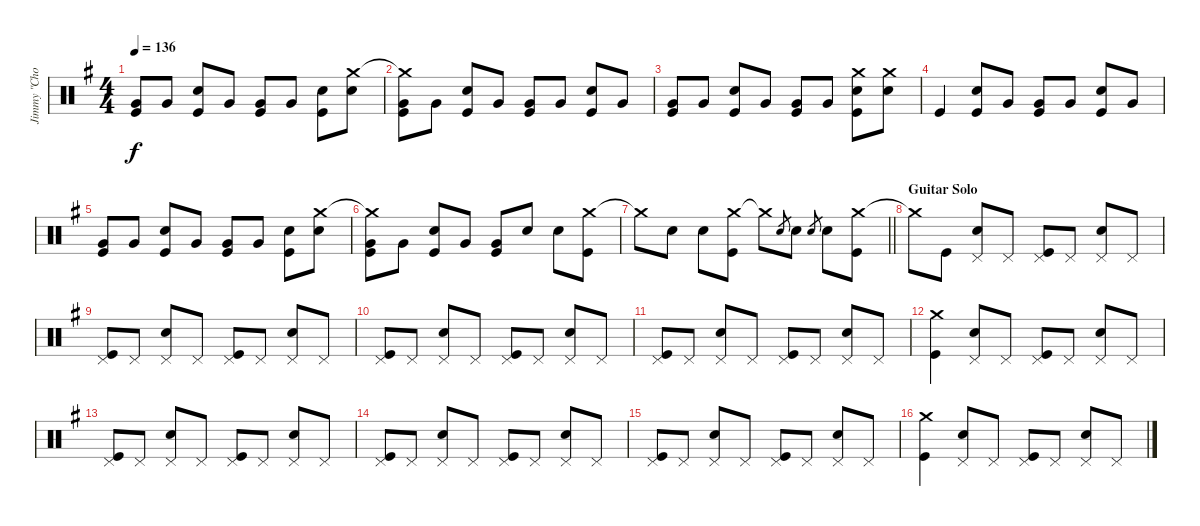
\track ("Jimmy \"Chocolate\" Chalfant" "Jimmy \"Cho") {instrument percussion}
\staff {score}
\articulation defaults
\ts (4 4)
\tempo 136
\clef neutral
\ks g
("Very Low Tom (hit)" "Kick (hit)").8{dy f} "Very Low Tom (hit)".8 ("Snare (hit) 2" "Kick (hit)").8 "Very Low Tom (hit)".8 ("Very Low Tom (hit)" "Kick (hit)").8 "Very Low Tom (hit)".8 ("Snare (hit) 2" "Kick (hit)").8 ("Crash medium (hit)" "Snare (hit) 2").8 |
("Crash medium (hit)"{t} "Very Low Tom (hit)" "Kick (hit)").8 "Very Low Tom (hit)".8 ("Snare (hit) 2" "Kick (hit)").8 "Very Low Tom (hit)".8 ("Very Low Tom (hit)" "Kick (hit)").8 "Very Low Tom (hit)".8 ("Snare (hit) 2" "Kick (hit)").8 "Very Low Tom (hit)".8 |
("Very Low Tom (hit)" "Kick (hit)").8 "Very Low Tom (hit)".8 ("Snare (hit) 2" "Kick (hit)").8 "Very Low Tom (hit)".8 ("Very Low Tom (hit)" "Kick (hit)").8 "Very Low Tom (hit)".8 ("Crash medium (hit)" "Snare (hit) 2" "Kick (hit)").8 ("Crash medium (hit)" "Snare (hit) 2").8 |
"Kick (hit)".4 ("Snare (hit) 2" "Kick (hit)").8 "Very Low Tom (hit)".8 ("Very Low Tom (hit)" "Kick (hit)").8 "Very Low Tom (hit)".8 ("Snare (hit) 2" "Kick (hit)").8 "Very Low Tom (hit)".8 |
("Very Low Tom (hit)" "Kick (hit)").8 "Very Low Tom (hit)".8 ("Snare (hit) 2" "Kick (hit)").8 "Very Low Tom (hit)".8 ("Very Low Tom (hit)" "Kick (hit)").8 "Very Low Tom (hit)".8 ("Snare (hit) 2" "Kick (hit)").8 ("Crash medium (hit)" "Snare (hit) 2").8 |
("Crash medium (hit)"{t} "Very Low Tom (hit)" "Kick (hit)").8 "Very Low Tom (hit)".8 ("Snare (hit) 2" "Kick (hit)").8 "Very Low Tom (hit)".8 ("Very Low Tom (hit)" "Kick (hit)").8 "Snare (hit) 2".8 "Snare (hit) 2".8 ("Crash medium (hit)" "Kick (hit)").8 |
\barLineRight lightlight "Crash medium (hit)"{t}.8 "Snare (hit) 2".8 "Snare (hit) 2".8
("Crash medium (hit)" "Kick (hit)").8 "Crash medium (hit)"{t}.8 "Snare (hit) 2".8{gr} "Snare (hit) 2".8 "Snare (hit) 2".8{gr} "Snare (hit) 2".8 ("Crash medium (hit)" "Kick (hit)").8 |
\section ("" "Guitar Solo")
"Crash medium (hit)"{t}.8 "Kick (hit)".8 ("Pedal Hi-Hat (hit)" "Snare (hit) 2").8 "Pedal Hi-Hat (hit)".8 ("Pedal Hi-Hat (hit)" "Kick (hit)").8 "Pedal Hi-Hat (hit)".8 ("Pedal Hi-Hat (hit)" "Snare (hit) 2").8 "Pedal Hi-Hat (hit)".8 |
("Pedal Hi-Hat (hit)" "Kick (hit)").8 "Pedal Hi-Hat (hit)".8 ("Pedal Hi-Hat (hit)" "Snare (hit) 2").8 "Pedal Hi-Hat (hit)".8 ("Pedal Hi-Hat (hit)" "Kick (hit)").8 "Pedal Hi-Hat (hit)".8 ("Pedal Hi-Hat (hit)" "Snare (hit) 2").8 "Pedal Hi-Hat (hit)".8 |
("Pedal Hi-Hat (hit)" "Kick (hit)").8 "Pedal Hi-Hat (hit)".8 ("Pedal Hi-Hat (hit)" "Snare (hit) 2").8 "Pedal Hi-Hat (hit)".8 ("Pedal Hi-Hat (hit)" "Kick (hit)").8 "Pedal Hi-Hat (hit)".8 ("Pedal Hi-Hat (hit)" "Snare (hit) 2").8 "Pedal Hi-Hat (hit)".8 |
("Pedal Hi-Hat (hit)" "Kick (hit)").8 "Pedal Hi-Hat (hit)".8 ("Pedal Hi-Hat (hit)" "Snare (hit) 2").8 "Pedal Hi-Hat (hit)".8 ("Pedal Hi-Hat (hit)" "Kick (hit)").8 "Pedal Hi-Hat (hit)".8 ("Pedal Hi-Hat (hit)" "Snare (hit) 2").8 "Pedal Hi-Hat (hit)".8 |
("Crash medium (hit)" "Kick (hit)").4 ("Pedal Hi-Hat (hit)" "Snare (hit) 2").8 "Pedal Hi-Hat (hit)".8 ("Pedal Hi-Hat (hit)" "Kick (hit)").8 "Pedal Hi-Hat (hit)".8 ("Pedal Hi-Hat (hit)" "Snare (hit) 2").8 "Pedal Hi-Hat (hit)".8 |
("Pedal Hi-Hat (hit)" "Kick (hit)").8 "Pedal Hi-Hat (hit)".8 ("Pedal Hi-Hat (hit)" "Snare (hit) 2").8 "Pedal Hi-Hat (hit)".8 ("Pedal Hi-Hat (hit)" "Kick (hit)").8 "Pedal Hi-Hat (hit)".8 ("Pedal Hi-Hat (hit)" "Snare (hit) 2").8 "Pedal Hi-Hat (hit)".8 |
("Pedal Hi-Hat (hit)" "Kick (hit)").8 "Pedal Hi-Hat (hit)".8 ("Pedal Hi-Hat (hit)" "Snare (hit) 2").8 "Pedal Hi-Hat (hit)".8 ("Pedal Hi-Hat (hit)" "Kick (hit)").8 "Pedal Hi-Hat (hit)".8 ("Pedal Hi-Hat (hit)" "Snare (hit) 2").8 "Pedal Hi-Hat (hit)".8 |
("Pedal Hi-Hat (hit)" "Kick (hit)").8 "Pedal Hi-Hat (hit)".8 ("Pedal Hi-Hat (hit)" "Snare (hit) 2").8 "Pedal Hi-Hat (hit)".8 ("Pedal Hi-Hat (hit)" "Kick (hit)").8 "Pedal Hi-Hat (hit)".8 ("Pedal Hi-Hat (hit)" "Snare (hit) 2").8 "Pedal Hi-Hat (hit)".8 |
("Crash medium (hit)" "Kick (hit)").4 ("Pedal Hi-Hat (hit)" "Snare (hit) 2").8 "Pedal Hi-Hat (hit)".8 ("Pedal Hi-Hat (hit)" "Kick (hit)").8 "Pedal Hi-Hat (hit)".8 ("Pedal Hi-Hat (hit)" "Snare (hit) 2").8 "Pedal Hi-Hat (hit)".8
